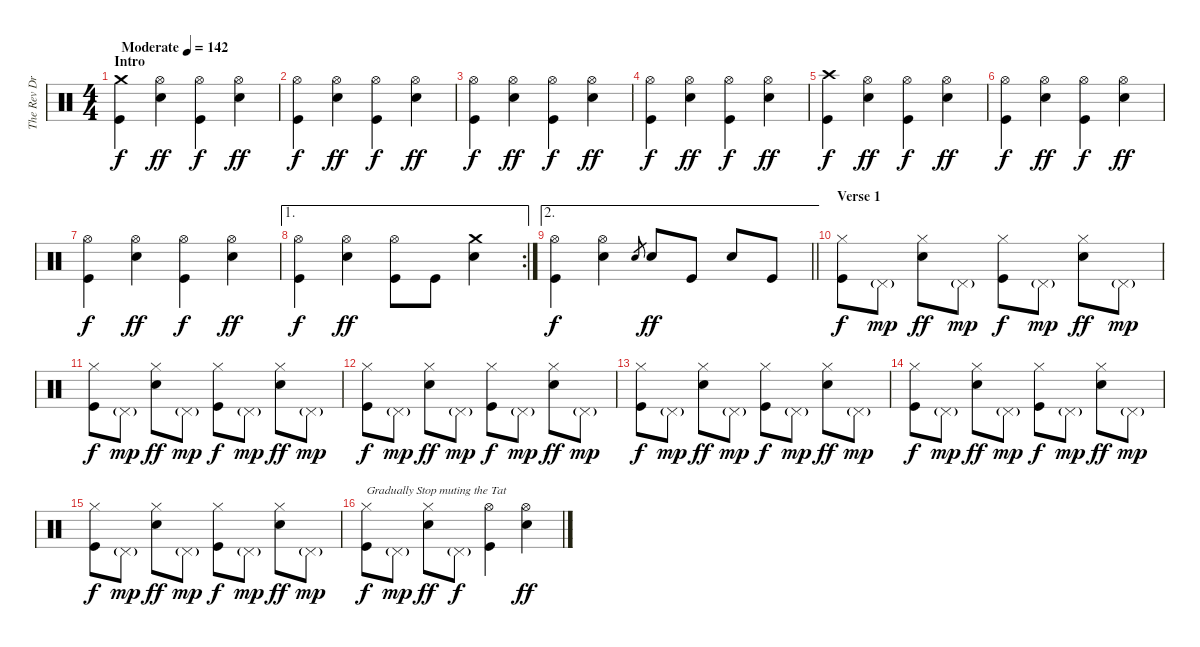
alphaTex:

\track ("The Rev Drums" "The Rev Dr") {instrument percussion}
\staff {score}
\articulation defaults
\ts (4 4)
\section ("" "Intro")
\tempo (142 "Moderate")
\clef neutral
\ks c
("Crash medium (hit)" "Kick (hit)").4{dy f} ("Hi-Hat (open)" "Electric Snare (hit)").4{dy ff} ("Hi-Hat (open)" "Kick (hit)").4{dy f} ("Hi-Hat (open)" "Electric Snare (hit)").4{dy ff} |
("Hi-Hat (open)" "Kick (hit)").4{dy f} ("Hi-Hat (open)" "Electric Snare (hit)").4{dy ff} ("Hi-Hat (open)" "Kick (hit)").4{dy f} ("Hi-Hat (open)" "Electric Snare (hit)").4{dy ff} |
("Hi-Hat (open)" "Kick (hit)").4{dy f} ("Hi-Hat (open)" "Electric Snare (hit)").4{dy ff} ("Hi-Hat (open)" "Kick (hit)").4{dy f} ("Hi-Hat (open)" "Electric Snare (hit)").4{dy ff} |
("Hi-Hat (open)" "Kick (hit)").4{dy f} ("Hi-Hat (open)" "Electric Snare (hit)").4{dy ff} ("Hi-Hat (open)" "Kick (hit)").4{dy f} ("Hi-Hat (open)" "Electric Snare (hit)").4{dy ff} |
("Crash high (hit)" "Kick (hit)").4{dy f} ("Hi-Hat (open)" "Electric Snare (hit)").4{dy ff} ("Hi-Hat (open)" "Kick (hit)").4{dy f} ("Hi-Hat (open)" "Electric Snare (hit)").4{dy ff} |
("Hi-Hat (open)" "Kick (hit)").4{dy f} ("Hi-Hat (open)" "Electric Snare (hit)").4{dy ff} ("Hi-Hat (open)" "Kick (hit)").4{dy f} ("Hi-Hat (open)" "Electric Snare (hit)").4{dy ff} |
("Hi-Hat (open)" "Kick (hit)").4{dy f} ("Hi-Hat (open)" "Electric Snare (hit)").4{dy ff} ("Hi-Hat (open)" "Kick (hit)").4{dy f} ("Hi-Hat (open)" "Electric Snare (hit)").4{dy ff} |
\ae 1
\rc 2
("Hi-Hat (open)" "Kick (hit)").4{dy f} ("Hi-Hat (open)" "Electric Snare (hit)").4{dy ff} ("Hi-Hat (open)" "Kick (hit)").8 "Kick (hit)".8 ("Crash medium (hit)" "Electric Snare (hit)").4 |
\ae 2
\barLineRight lightlight
("Hi-Hat (open)" "Kick (hit)").4{dy f} ("Hi-Hat (open)" "Electric Snare (hit)").4 "Electric Snare (hit)".8{gr} "Electric Snare (hit)".8{dy ff} "Kick (hit)".8 "Electric Snare (hit)".8 "Kick (hit)".8 |
\section ("" "Verse 1")
("Hi-Hat (closed)" "Kick (hit)").8{dy f} "Pedal Hi-Hat (hit)"{g}.8{dy mp} ("Hi-Hat (closed)" "Electric Snare (hit)").8{dy ff} "Pedal Hi-Hat (hit)"{g}.8{dy mp} ("Hi-Hat (closed)" "Kick (hit)").8{dy f} "Pedal Hi-Hat (hit)"{g}.8{dy mp} ("Hi-Hat (closed)" "Electric Snare (hit)").8{dy ff} "Pedal Hi-Hat (hit)"{g}.8{dy mp} |
("Hi-Hat (closed)" "Kick (hit)").8{dy f} "Pedal Hi-Hat (hit)"{g}.8{dy mp} ("Hi-Hat (closed)" "Electric Snare (hit)").8{dy ff} "Pedal Hi-Hat (hit)"{g}.8{dy mp} ("Hi-Hat (closed)" "Kick (hit)").8{dy f} "Pedal Hi-Hat (hit)"{g}.8{dy mp} ("Hi-Hat (closed)" "Electric Snare (hit)").8{dy ff} "Pedal Hi-Hat (hit)"{g}.8{dy mp} |
("Hi-Hat (closed)" "Kick (hit)").8{dy f} "Pedal Hi-Hat (hit)"{g}.8{dy mp} ("Hi-Hat (closed)" "Electric Snare (hit)").8{dy ff} "Pedal Hi-Hat (hit)"{g}.8{dy mp} ("Hi-Hat (closed)" "Kick (hit)").8{dy f} "Pedal Hi-Hat (hit)"{g}.8{dy mp} ("Hi-Hat (closed)" "Electric Snare (hit)").8{dy ff} "Pedal Hi-Hat (hit)"{g}.8{dy mp} |
("Hi-Hat (closed)" "Kick (hit)").8{dy f} "Pedal Hi-Hat (hit)"{g}.8{dy mp} ("Hi-Hat (closed)" "Electric Snare (hit)").8{dy ff} "Pedal Hi-Hat (hit)"{g}.8{dy mp} ("Hi-Hat (closed)" "Kick (hit)").8{dy f} "Pedal Hi-Hat (hit)"{g}.8{dy mp} ("Hi-Hat (closed)" "Electric Snare (hit)").8{dy ff} "Pedal Hi-Hat (hit)"{g}.8{dy mp} |
("Hi-Hat (closed)" "Kick (hit)").8{dy f} "Pedal Hi-Hat (hit)"{g}.8{dy mp} ("Hi-Hat (closed)" "Electric Snare (hit)").8{dy ff} "Pedal Hi-Hat (hit)"{g}.8{dy mp} ("Hi-Hat (closed)" "Kick (hit)").8{dy f} "Pedal Hi-Hat (hit)"{g}.8{dy mp} ("Hi-Hat (closed)" "Electric Snare (hit)").8{dy ff} "Pedal Hi-Hat (hit)"{g}.8{dy mp} |
("Hi-Hat (closed)" "Kick (hit)").8{dy f} "Pedal Hi-Hat (hit)"{g}.8{dy mp} ("Hi-Hat (closed)" "Electric Snare (hit)").8{dy ff} "Pedal Hi-Hat (hit)"{g}.8{dy mp} ("Hi-Hat (closed)" "Kick (hit)").8{dy f} "Pedal Hi-Hat (hit)"{g}.8{dy mp} ("Hi-Hat (closed)" "Electric Snare (hit)").8{dy ff} "Pedal Hi-Hat (hit)"{g}.8{dy mp} |
("Hi-Hat (closed)" "Kick (hit)").8{txt "Gradually Stop muting the Tat" dy f} "Pedal Hi-Hat (hit)"{g}.8{dy mp} ("Hi-Hat (closed)" "Electric Snare (hit)").8{dy ff} "Pedal Hi-Hat (hit)"{g}.8{dy f} ("Hi-Hat (open)" "Kick (hit)").4 ("Hi-Hat (open)" "Electric Snare (hit)").4{dy ff}
